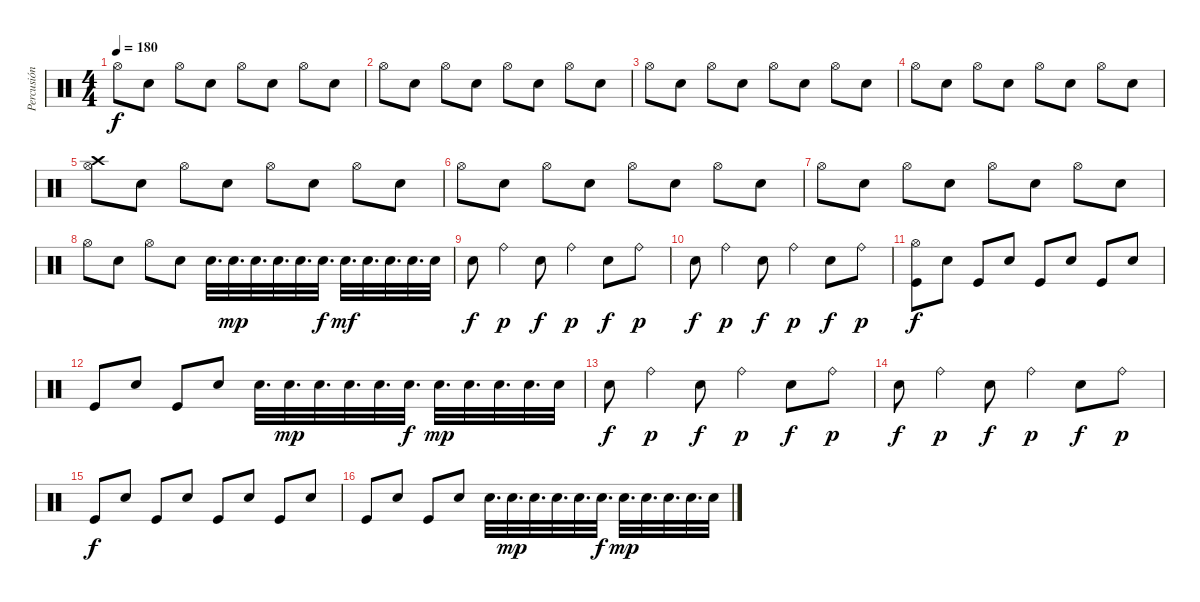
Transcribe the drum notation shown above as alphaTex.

\track ("Percusión" "Percusión") {instrument percussion}
\staff {score}
\articulation defaults
\ts (4 4)
\tempo 180
\clef neutral
\ks c "Hi-Hat (open)".8{dy f} "Snare (hit) 2".8 "Hi-Hat (open)".8 "Snare (hit) 2".8 "Hi-Hat (open)".8 "Snare (hit) 2".8 "Hi-Hat (open)".8 "Snare (hit) 2".8
|
"Hi-Hat (open)".8 "Snare (hit) 2".8 "Hi-Hat (open)".8 "Snare (hit) 2".8 "Hi-Hat (open)".8 "Snare (hit) 2".8 "Hi-Hat (open)".8 "Snare (hit) 2".8 |
"Hi-Hat (open)".8 "Snare (hit) 2".8 "Hi-Hat (open)".8 "Snare (hit) 2".8 "Hi-Hat (open)".8 "Snare (hit) 2".8 "Hi-Hat (open)".8 "Snare (hit) 2".8 |
"Hi-Hat (open)".8 "Snare (hit) 2".8 "Hi-Hat (open)".8 "Snare (hit) 2".8 "Hi-Hat (open)".8 "Snare (hit) 2".8 "Hi-Hat (open)".8 "Snare (hit) 2".8 |
("Hi-Hat (open)" "Crash high (hit)").8 "Snare (hit) 2".8 "Hi-Hat (open)".8 "Snare (hit) 2".8 "Hi-Hat (open)".8 "Snare (hit) 2".8 "Hi-Hat (open)".8 "Snare (hit) 2".8 |
"Hi-Hat (open)".8 "Snare (hit) 2".8 "Hi-Hat (open)".8 "Snare (hit) 2".8 "Hi-Hat (open)".8 "Snare (hit) 2".8 "Hi-Hat (open)".8 "Snare (hit) 2".8 |
"Hi-Hat (open)".8 "Snare (hit) 2".8 "Hi-Hat (open)".8 "Snare (hit) 2".8 "Hi-Hat (open)".8 "Snare (hit) 2".8 "Hi-Hat (open)".8 "Snare (hit) 2".8 |
"Hi-Hat (open)".8 "Snare (hit) 2".8 "Hi-Hat (open)".8 "Snare (hit) 2".8 "Snare (hit) 2".32{d} "Snare (hit) 2".32{d dy mp} "Snare (hit) 2".32{d} "Snare (hit) 2".32{d} "Snare (hit) 2".32{d} "Snare (hit) 2".32{d dy f} "Snare (hit) 2".32{d dy mf} "Snare (hit) 2".32{d} "Snare (hit) 2".32{d} "Snare (hit) 2".32{d} "Snare (hit) 2".32 |
"Snare (hit) 2".8{dy f} "Ride (bell)".4{dy p} "Snare (hit) 2".8{dy f} "Ride (bell)".4{dy p} "Snare (hit) 2".8{dy f} "Ride (bell)".8{dy p} |
"Snare (hit) 2".8{dy f} "Ride (bell)".4{dy p} "Snare (hit) 2".8{dy f} "Ride (bell)".4{dy p} "Snare (hit) 2".8{dy f} "Ride (bell)".8{dy p} |
("Kick (hit)" "Hi-Hat (open)").8{dy f} "Snare (hit) 2".8 "Kick (hit)".8 "Snare (hit) 2".8 "Kick (hit)".8 "Snare (hit) 2".8 "Kick (hit)".8 "Snare (hit) 2".8 |
"Kick (hit)".8 "Snare (hit) 2".8 "Kick (hit)".8 "Snare (hit) 2".8 "Snare (hit) 2".32{d} "Snare (hit) 2".32{d dy mp} "Snare (hit) 2".32{d} "Snare (hit) 2".32{d} "Snare (hit) 2".32{d} "Snare (hit) 2".32{d dy f} "Snare (hit) 2".32{d dy mp} "Snare (hit) 2".32{d} "Snare (hit) 2".32{d} "Snare (hit) 2".32{d} "Snare (hit) 2".32 |
"Snare (hit) 2".8{dy f} "Ride (bell)".4{dy p} "Snare (hit) 2".8{dy f} "Ride (bell)".4{dy p} "Snare (hit) 2".8{dy f} "Ride (bell)".8{dy p} |
"Snare (hit) 2".8{dy f} "Ride (bell)".4{dy p} "Snare (hit) 2".8{dy f} "Ride (bell)".4{dy p} "Snare (hit) 2".8{dy f} "Ride (bell)".8{dy p} |
"Kick (hit)".8{dy f} "Snare (hit) 2".8 "Kick (hit)".8 "Snare (hit) 2".8 "Kick (hit)".8 "Snare (hit) 2".8 "Kick (hit)".8 "Snare (hit) 2".8 |
"Kick (hit)".8 "Snare (hit) 2".8 "Kick (hit)".8 "Snare (hit) 2".8 "Snare (hit) 2".32{d} "Snare (hit) 2".32{d dy mp} "Snare (hit) 2".32{d} "Snare (hit) 2".32{d} "Snare (hit) 2".32{d} "Snare (hit) 2".32{d dy f} "Snare (hit) 2".32{d dy mp} "Snare (hit) 2".32{d} "Snare (hit) 2".32{d} "Snare (hit) 2".32{d} "Snare (hit) 2".32
